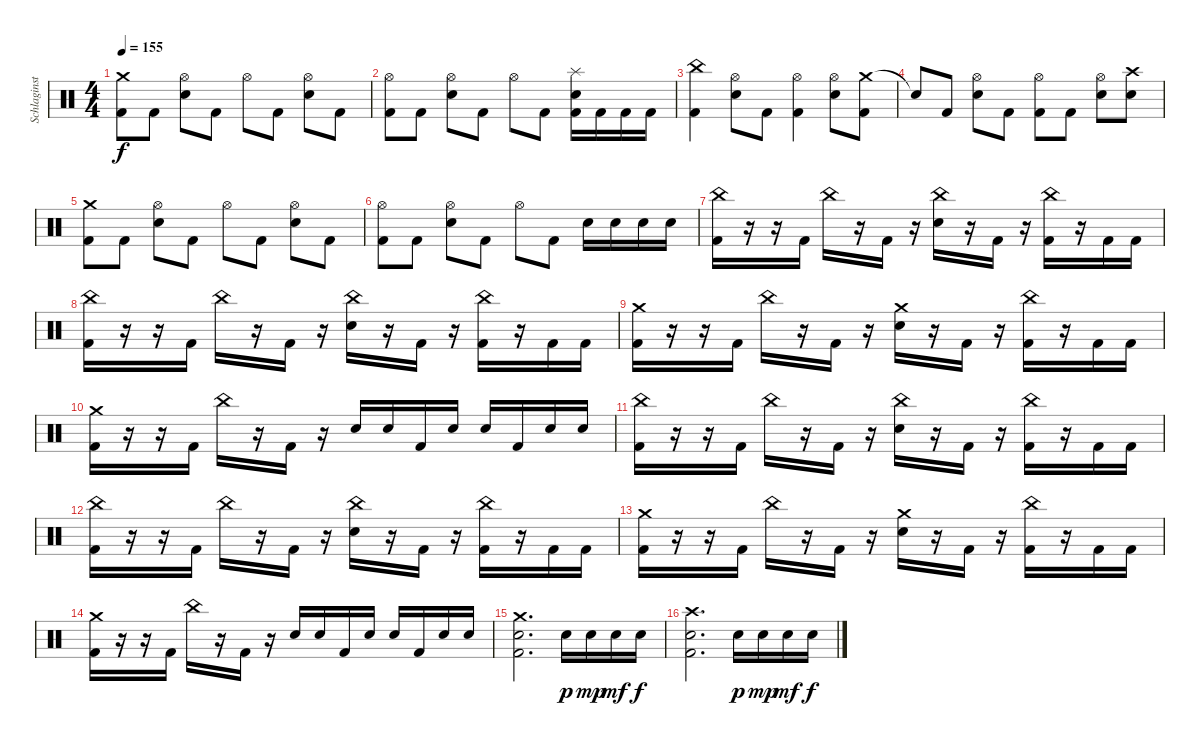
\track ("Schlaginstrumente - Auswahl" "Schlaginst") {instrument percussion}
\staff {score}
\articulation defaults
\ts (4 4)
\tempo 155
\clef neutral
\ks c
("Crash medium (hit)" "Kick (hit) 2").8{dy f} "Kick (hit) 2".8 ("Hi-Hat (open)" "Electric Snare (hit)").8 "Kick (hit) 2".8 "Hi-Hat (open)".8 "Kick (hit) 2".8 ("Hi-Hat (open)" "Electric Snare (hit)").8 "Kick (hit) 2".8 |
("Hi-Hat (open)" "Kick (hit) 2").8 "Kick (hit) 2".8 ("Hi-Hat (open)" "Electric Snare (hit)").8 "Kick (hit) 2".8 "Hi-Hat (open)".8 "Kick (hit) 2".8 ("Splash (hit)" "Electric Snare (hit)" "Kick (hit) 2").16 "Kick (hit) 2".16 "Kick (hit) 2".16 "Kick (hit) 2".16 |
("China (hit)" "Kick (hit) 2").4 ("Hi-Hat (open)" "Electric Snare (hit)").8 "Kick (hit) 2".8 ("Hi-Hat (open)" "Kick (hit) 2").4 ("Hi-Hat (open)" "Electric Snare (hit)").8 ("Crash medium (hit)" "Kick (hit) 2").8 |
"Snare (hit)"{t}.8 "Kick (hit) 2".8 ("Hi-Hat (open)" "Electric Snare (hit)").8 "Kick (hit) 2".8 ("Hi-Hat (open)" "Kick (hit) 2").8 "Kick (hit) 2".8 ("Hi-Hat (open)" "Electric Snare (hit)").8 ("Crash high (hit)" "Electric Snare (hit)").8 |
("Crash medium (hit)" "Kick (hit) 2").8 "Kick (hit) 2".8 ("Hi-Hat (open)" "Electric Snare (hit)").8 "Kick (hit) 2".8 "Hi-Hat (open)".8 "Kick (hit) 2".8 ("Hi-Hat (open)" "Electric Snare (hit)").8 "Kick (hit) 2".8 |
("Hi-Hat (open)" "Kick (hit) 2").8 "Kick (hit) 2".8 ("Hi-Hat (open)" "Electric Snare (hit)").8 "Kick (hit) 2".8 "Hi-Hat (open)".8 "Kick (hit) 2".8 "Electric Snare (hit)".16 "Electric Snare (hit)".16 "Electric Snare (hit)".16 "Electric Snare (hit)".16 |
("China (hit)" "Kick (hit) 2").16 r.16 r.16 "Kick (hit) 2".16 "China (hit)".16 r.16 "Kick (hit) 2".16 r.16 ("China (hit)" "Electric Snare (hit)").16 r.16 "Kick (hit) 2".16 r.16 ("China (hit)" "Kick (hit) 2").16 r.16 "Kick (hit) 2".16 "Kick (hit) 2".16 |
("China (hit)" "Kick (hit) 2").16 r.16 r.16 "Kick (hit) 2".16 "China (hit)".16 r.16 "Kick (hit) 2".16 r.16 ("China (hit)" "Electric Snare (hit)").16 r.16 "Kick (hit) 2".16 r.16 ("China (hit)" "Kick (hit) 2").16 r.16 "Kick (hit) 2".16 "Kick (hit) 2".16 |
("Crash medium (hit)" "Kick (hit) 2").16 r.16 r.16 "Kick (hit) 2".16 "China (hit)".16 r.16 "Kick (hit) 2".16 r.16 ("Crash medium (hit)" "Electric Snare (hit)").16 r.16 "Kick (hit) 2".16 r.16 ("China (hit)" "Kick (hit) 2").16 r.16 "Kick (hit) 2".16 "Kick (hit) 2".16 |
("Crash medium (hit)" "Kick (hit) 2").16 r.16 r.16 "Kick (hit) 2".16 "China (hit)".16 r.16 "Kick (hit) 2".16 r.16 "Electric Snare (hit)".16 "Electric Snare (hit)".16 "Kick (hit) 2".16 "Electric Snare (hit)".16 "Electric Snare (hit)".16 "Kick (hit) 2".16 "Electric Snare (hit)".16 "Electric Snare (hit)".16 |
("China (hit)" "Kick (hit) 2").16 r.16 r.16 "Kick (hit) 2".16 "China (hit)".16 r.16 "Kick (hit) 2".16 r.16 ("China (hit)" "Electric Snare (hit)").16 r.16 "Kick (hit) 2".16 r.16 ("China (hit)" "Kick (hit) 2").16 r.16 "Kick (hit) 2".16 "Kick (hit) 2".16 |
("China (hit)" "Kick (hit) 2").16 r.16 r.16 "Kick (hit) 2".16 "China (hit)".16 r.16 "Kick (hit) 2".16 r.16 ("China (hit)" "Electric Snare (hit)").16 r.16 "Kick (hit) 2".16 r.16 ("China (hit)" "Kick (hit) 2").16 r.16 "Kick (hit) 2".16 "Kick (hit) 2".16 |
("Crash medium (hit)" "Kick (hit) 2").16 r.16 r.16 "Kick (hit) 2".16 "China (hit)".16 r.16 "Kick (hit) 2".16 r.16 ("Crash medium (hit)" "Electric Snare (hit)").16 r.16 "Kick (hit) 2".16 r.16 ("China (hit)" "Kick (hit) 2").16 r.16 "Kick (hit) 2".16 "Kick (hit) 2".16 |
("Crash medium (hit)" "Kick (hit) 2").16 r.16 r.16 "Kick (hit) 2".16 "China (hit)".16 r.16 "Kick (hit) 2".16 r.16 "Electric Snare (hit)".16 "Electric Snare (hit)".16 "Kick (hit) 2".16 "Electric Snare (hit)".16 "Electric Snare (hit)".16 "Kick (hit) 2".16 "Electric Snare (hit)".16 "Electric Snare (hit)".16 |
("Crash medium (hit)" "Electric Snare (hit)" "Kick (hit) 2").2{d} "Electric Snare (hit)".16{dy p} "Electric Snare (hit)".16{dy mp} "Electric Snare (hit)".16{dy mf} "Electric Snare (hit)".16{dy f} |
("Crash high (hit)" "Electric Snare (hit)" "Kick (hit) 2").2{d} "Electric Snare (hit)".16{dy p} "Electric Snare (hit)".16{dy mp} "Electric Snare (hit)".16{dy mf} "Electric Snare (hit)".16{dy f}
